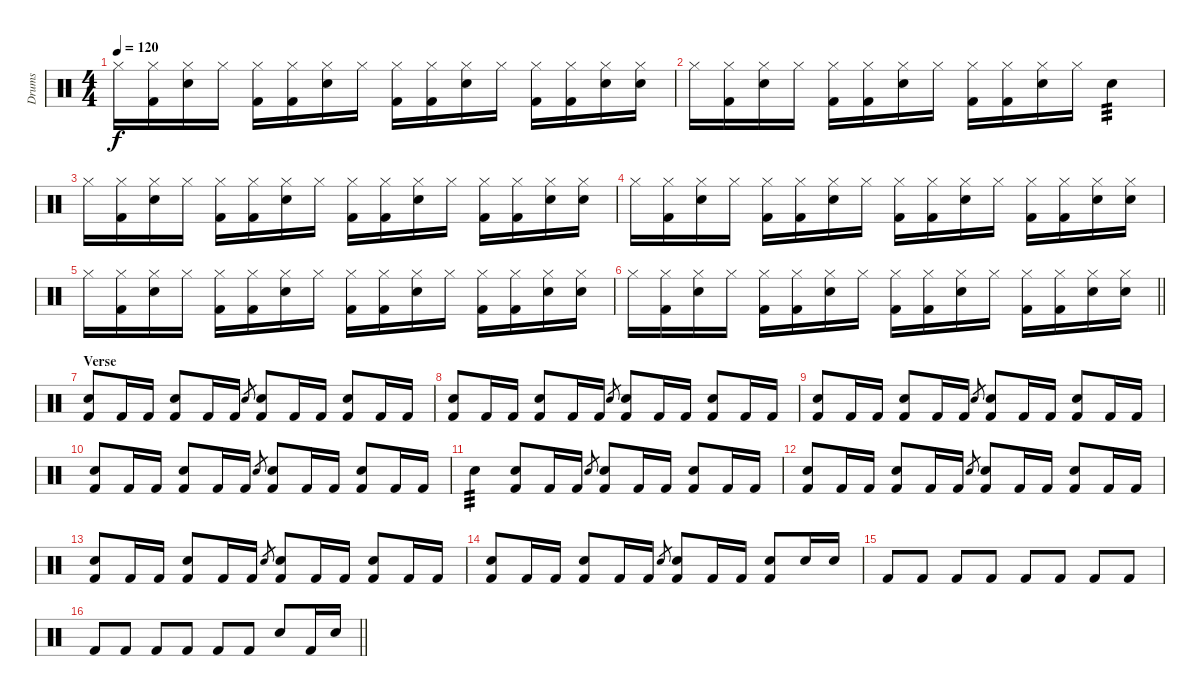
\track ("Drums" "Drums") {instrument percussion}
\staff {score}
\articulation defaults
\ts (4 4)
\tempo 120
\clef neutral
\ks c "Hi-Hat (closed)".16{dy f}
("Hi-Hat (closed)" "Kick (hit) 2").16 ("Hi-Hat (closed)" "Electric Snare (hit)").16 "Hi-Hat (closed)".16 ("Hi-Hat (closed)" "Kick (hit) 2").16 ("Hi-Hat (closed)" "Kick (hit) 2").16 ("Hi-Hat (closed)" "Electric Snare (hit)").16 "Hi-Hat (closed)".16 ("Hi-Hat (closed)" "Kick (hit) 2").16 ("Hi-Hat (closed)" "Kick (hit) 2").16 ("Hi-Hat (closed)" "Electric Snare (hit)").16 "Hi-Hat (closed)".16 ("Hi-Hat (closed)" "Kick (hit) 2").16 ("Hi-Hat (closed)" "Kick (hit) 2").16 ("Hi-Hat (closed)" "Electric Snare (hit)").16 ("Hi-Hat (closed)" "Electric Snare (hit)").16 |
"Hi-Hat (closed)".16 ("Hi-Hat (closed)" "Kick (hit) 2").16 ("Hi-Hat (closed)" "Electric Snare (hit)").16 "Hi-Hat (closed)".16 ("Hi-Hat (closed)" "Kick (hit) 2").16 ("Hi-Hat (closed)" "Kick (hit) 2").16 ("Hi-Hat (closed)" "Electric Snare (hit)").16 "Hi-Hat (closed)".16 ("Hi-Hat (closed)" "Kick (hit) 2").16 ("Hi-Hat (closed)" "Kick (hit) 2").16 ("Hi-Hat (closed)" "Electric Snare (hit)").16 "Hi-Hat (closed)".16 "Electric Snare (hit)".4{tp 3} |
"Hi-Hat (closed)".16 ("Hi-Hat (closed)" "Kick (hit) 2").16 ("Hi-Hat (closed)" "Electric Snare (hit)").16 "Hi-Hat (closed)".16 ("Hi-Hat (closed)" "Kick (hit) 2").16 ("Hi-Hat (closed)" "Kick (hit) 2").16 ("Hi-Hat (closed)" "Electric Snare (hit)").16 "Hi-Hat (closed)".16 ("Hi-Hat (closed)" "Kick (hit) 2").16 ("Hi-Hat (closed)" "Kick (hit) 2").16 ("Hi-Hat (closed)" "Electric Snare (hit)").16 "Hi-Hat (closed)".16 ("Hi-Hat (closed)" "Kick (hit) 2").16 ("Hi-Hat (closed)" "Kick (hit) 2").16 ("Hi-Hat (closed)" "Electric Snare (hit)").16 ("Hi-Hat (closed)" "Electric Snare (hit)").16 |
"Hi-Hat (closed)".16 ("Hi-Hat (closed)" "Kick (hit) 2").16 ("Hi-Hat (closed)" "Electric Snare (hit)").16 "Hi-Hat (closed)".16 ("Hi-Hat (closed)" "Kick (hit) 2").16 ("Hi-Hat (closed)" "Kick (hit) 2").16 ("Hi-Hat (closed)" "Electric Snare (hit)").16 "Hi-Hat (closed)".16 ("Hi-Hat (closed)" "Kick (hit) 2").16 ("Hi-Hat (closed)" "Kick (hit) 2").16 ("Hi-Hat (closed)" "Electric Snare (hit)").16 "Hi-Hat (closed)".16 ("Hi-Hat (closed)" "Kick (hit) 2").16 ("Hi-Hat (closed)" "Kick (hit) 2").16 ("Hi-Hat (closed)" "Electric Snare (hit)").16 ("Hi-Hat (closed)" "Electric Snare (hit)").16 |
"Hi-Hat (closed)".16 ("Hi-Hat (closed)" "Kick (hit) 2").16 ("Hi-Hat (closed)" "Electric Snare (hit)").16 "Hi-Hat (closed)".16 ("Hi-Hat (closed)" "Kick (hit) 2").16 ("Hi-Hat (closed)" "Kick (hit) 2").16 ("Hi-Hat (closed)" "Electric Snare (hit)").16 "Hi-Hat (closed)".16 ("Hi-Hat (closed)" "Kick (hit) 2").16 ("Hi-Hat (closed)" "Kick (hit) 2").16 ("Hi-Hat (closed)" "Electric Snare (hit)").16 "Hi-Hat (closed)".16 ("Hi-Hat (closed)" "Kick (hit) 2").16 ("Hi-Hat (closed)" "Kick (hit) 2").16 ("Hi-Hat (closed)" "Electric Snare (hit)").16 ("Hi-Hat (closed)" "Electric Snare (hit)").16 |
\barLineRight lightlight "Hi-Hat (closed)".16
("Hi-Hat (closed)" "Kick (hit) 2").16 ("Hi-Hat (closed)" "Electric Snare (hit)").16 "Hi-Hat (closed)".16 ("Hi-Hat (closed)" "Kick (hit) 2").16 ("Hi-Hat (closed)" "Kick (hit) 2").16 ("Hi-Hat (closed)" "Electric Snare (hit)").16 "Hi-Hat (closed)".16 ("Hi-Hat (closed)" "Kick (hit) 2").16 ("Hi-Hat (closed)" "Kick (hit) 2").16 ("Hi-Hat (closed)" "Electric Snare (hit)").16 "Hi-Hat (closed)".16 ("Hi-Hat (closed)" "Kick (hit) 2").16 ("Hi-Hat (closed)" "Kick (hit) 2").16 ("Hi-Hat (closed)" "Electric Snare (hit)").16 ("Hi-Hat (closed)" "Electric Snare (hit)").16 |
\section ("" "Verse")
("Electric Snare (hit)" "Kick (hit) 2").8 "Kick (hit) 2".16 "Kick (hit) 2".16 ("Electric Snare (hit)" "Kick (hit) 2").8 "Kick (hit) 2".16 "Kick (hit) 2".16 "Electric Snare (hit)".8{gr} ("Electric Snare (hit)" "Kick (hit) 2").8 "Kick (hit) 2".16 "Kick (hit) 2".16 ("Electric Snare (hit)" "Kick (hit) 2").8 "Kick (hit) 2".16 "Kick (hit) 2".16 |
("Electric Snare (hit)" "Kick (hit) 2").8 "Kick (hit) 2".16 "Kick (hit) 2".16 ("Electric Snare (hit)" "Kick (hit) 2").8 "Kick (hit) 2".16 "Kick (hit) 2".16 "Electric Snare (hit)".8{gr} ("Electric Snare (hit)" "Kick (hit) 2").8 "Kick (hit) 2".16 "Kick (hit) 2".16 ("Electric Snare (hit)" "Kick (hit) 2").8 "Kick (hit) 2".16 "Kick (hit) 2".16 |
("Electric Snare (hit)" "Kick (hit) 2").8 "Kick (hit) 2".16 "Kick (hit) 2".16 ("Electric Snare (hit)" "Kick (hit) 2").8 "Kick (hit) 2".16 "Kick (hit) 2".16 "Electric Snare (hit)".8{gr} ("Electric Snare (hit)" "Kick (hit) 2").8 "Kick (hit) 2".16 "Kick (hit) 2".16 ("Electric Snare (hit)" "Kick (hit) 2").8 "Kick (hit) 2".16 "Kick (hit) 2".16 |
("Electric Snare (hit)" "Kick (hit) 2").8 "Kick (hit) 2".16 "Kick (hit) 2".16 ("Electric Snare (hit)" "Kick (hit) 2").8 "Kick (hit) 2".16 "Kick (hit) 2".16 "Electric Snare (hit)".8{gr} ("Electric Snare (hit)" "Kick (hit) 2").8 "Kick (hit) 2".16 "Kick (hit) 2".16 ("Electric Snare (hit)" "Kick (hit) 2").8 "Kick (hit) 2".16 "Kick (hit) 2".16 |
"Electric Snare (hit)".4{tp 3} ("Electric Snare (hit)" "Kick (hit) 2").8 "Kick (hit) 2".16 "Kick (hit) 2".16 "Electric Snare (hit)".8{gr} ("Electric Snare (hit)" "Kick (hit) 2").8 "Kick (hit) 2".16 "Kick (hit) 2".16 ("Electric Snare (hit)" "Kick (hit) 2").8 "Kick (hit) 2".16 "Kick (hit) 2".16 |
("Electric Snare (hit)" "Kick (hit) 2").8 "Kick (hit) 2".16 "Kick (hit) 2".16 ("Electric Snare (hit)" "Kick (hit) 2").8 "Kick (hit) 2".16 "Kick (hit) 2".16 "Electric Snare (hit)".8{gr} ("Electric Snare (hit)" "Kick (hit) 2").8 "Kick (hit) 2".16 "Kick (hit) 2".16 ("Electric Snare (hit)" "Kick (hit) 2").8 "Kick (hit) 2".16 "Kick (hit) 2".16 |
("Electric Snare (hit)" "Kick (hit) 2").8 "Kick (hit) 2".16 "Kick (hit) 2".16 ("Electric Snare (hit)" "Kick (hit) 2").8 "Kick (hit) 2".16 "Kick (hit) 2".16 "Electric Snare (hit)".8{gr} ("Electric Snare (hit)" "Kick (hit) 2").8 "Kick (hit) 2".16 "Kick (hit) 2".16 ("Electric Snare (hit)" "Kick (hit) 2").8 "Kick (hit) 2".16 "Kick (hit) 2".16 |
("Electric Snare (hit)" "Kick (hit) 2").8 "Kick (hit) 2".16 "Kick (hit) 2".16 ("Electric Snare (hit)" "Kick (hit) 2").8 "Kick (hit) 2".16 "Kick (hit) 2".16 "Electric Snare (hit)".8{gr} ("Electric Snare (hit)" "Kick (hit) 2").8 "Kick (hit) 2".16 "Kick (hit) 2".16 ("Electric Snare (hit)" "Kick (hit) 2").8 "Snare (hit) 2".16 "Snare (hit) 2".16 |
"Kick (hit) 2".8 "Kick (hit) 2".8 "Kick (hit) 2".8 "Kick (hit) 2".8 "Kick (hit) 2".8 "Kick (hit) 2".8 "Kick (hit) 2".8 "Kick (hit) 2".8 |
\barLineRight lightlight "Kick (hit) 2".8 "Kick (hit) 2".8 "Kick (hit) 2".8 "Kick (hit) 2".8 "Kick (hit) 2".8 "Kick (hit) 2".8 "Snare (hit) 2".8 "Kick (hit) 2".16 "Snare (hit) 2".16
